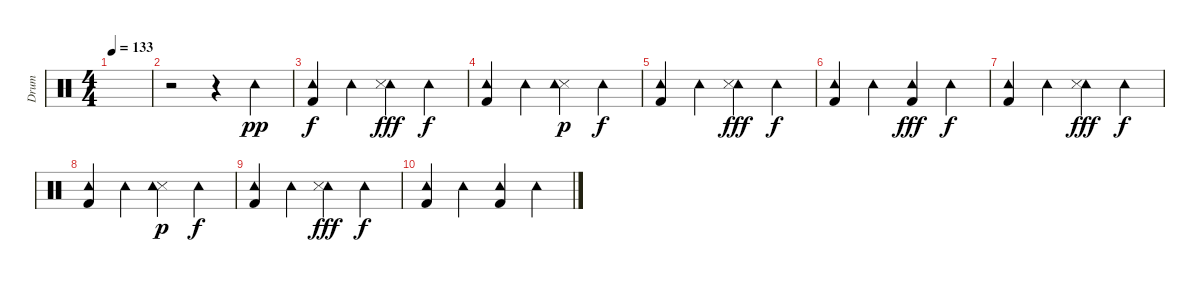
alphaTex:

\track ("Drum" "Drum") {instrument percussion}
\staff {score}
\articulation defaults
\ts (4 4)
\tempo 133
\clef neutral
\ks c
|
r.2 r.4 "Tambourine (hit)".4{dy pp} |
("Tambourine (hit)" "Kick (hit) 2").4{dy f} "Tambourine (hit)".4 ("Tambourine (hit)" "Snare (side stick) 3").4{dy fff} "Tambourine (hit)".4{dy f} |
("Tambourine (hit)" "Kick (hit) 2").4 "Tambourine (hit)".4 ("Snare (side stick) 3" "Tambourine (hit)").4{dy p} "Tambourine (hit)".4{dy f} |
("Tambourine (hit)" "Kick (hit) 2").4 "Tambourine (hit)".4 ("Tambourine (hit)" "Snare (side stick) 3").4{dy fff} "Tambourine (hit)".4{dy f} |
("Tambourine (hit)" "Kick (hit) 2").4 "Tambourine (hit)".4 ("Kick (hit) 2" "Tambourine (hit)").4{dy fff} "Tambourine (hit)".4{dy f} |
("Tambourine (hit)" "Kick (hit) 2").4 "Tambourine (hit)".4 ("Tambourine (hit)" "Snare (side stick) 3").4{dy fff} "Tambourine (hit)".4{dy f} |
("Tambourine (hit)" "Kick (hit) 2").4 "Tambourine (hit)".4 ("Snare (side stick) 3" "Tambourine (hit)").4{dy p} "Tambourine (hit)".4{dy f} |
("Tambourine (hit)" "Kick (hit) 2").4 "Tambourine (hit)".4 ("Tambourine (hit)" "Snare (side stick) 3").4{dy fff} "Tambourine (hit)".4{dy f} |
("Tambourine (hit)" "Kick (hit) 2").4 "Tambourine (hit)".4 ("Kick (hit) 2" "Tambourine (hit)").4 "Tambourine (hit)".4
